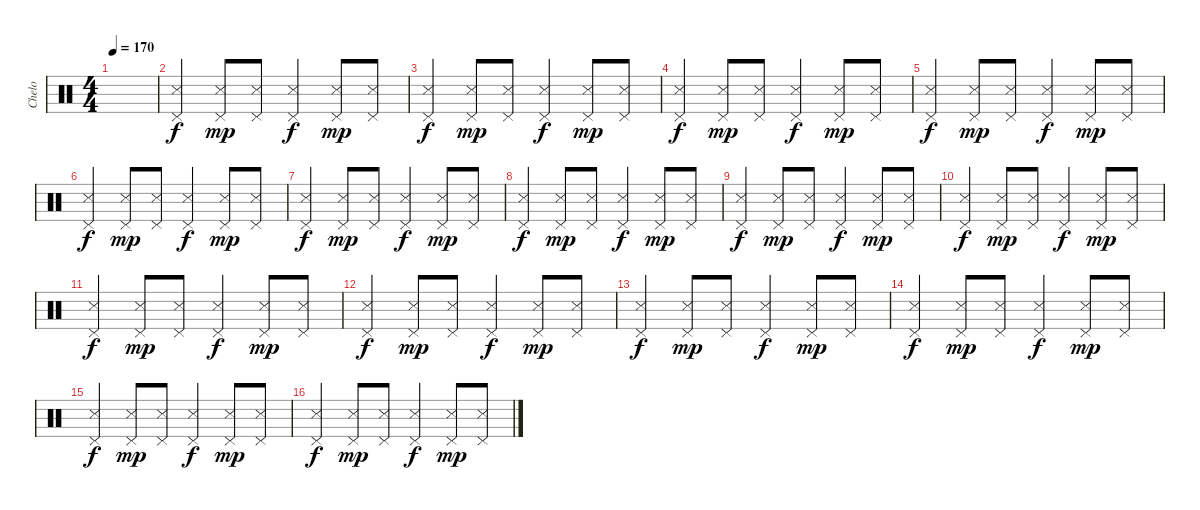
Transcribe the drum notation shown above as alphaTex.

\track ("Chelo" "Chelo") {instrument percussion}
\staff {score}
\articulation defaults
\ts (4 4)
\tempo 170
\clef neutral
\ks c
|
("Snare (side stick) 3" "Pedal Hi-Hat (hit)").4{dy f} ("Snare (side stick) 3" "Pedal Hi-Hat (hit)").8{dy mp} ("Pedal Hi-Hat (hit)" "Snare (side stick) 3").8 ("Snare (side stick) 3" "Pedal Hi-Hat (hit)").4{dy f} ("Snare (side stick) 3" "Pedal Hi-Hat (hit)").8{dy mp} ("Snare (side stick) 3" "Pedal Hi-Hat (hit)").8 |
("Snare (side stick) 3" "Pedal Hi-Hat (hit)").4{dy f} ("Snare (side stick) 3" "Pedal Hi-Hat (hit)").8{dy mp} ("Pedal Hi-Hat (hit)" "Snare (side stick) 3").8 ("Snare (side stick) 3" "Pedal Hi-Hat (hit)").4{dy f} ("Snare (side stick) 3" "Pedal Hi-Hat (hit)").8{dy mp} ("Snare (side stick) 3" "Pedal Hi-Hat (hit)").8 |
("Snare (side stick) 3" "Pedal Hi-Hat (hit)").4{dy f} ("Snare (side stick) 3" "Pedal Hi-Hat (hit)").8{dy mp} ("Pedal Hi-Hat (hit)" "Snare (side stick) 3").8 ("Snare (side stick) 3" "Pedal Hi-Hat (hit)").4{dy f} ("Snare (side stick) 3" "Pedal Hi-Hat (hit)").8{dy mp} ("Snare (side stick) 3" "Pedal Hi-Hat (hit)").8 |
("Snare (side stick) 3" "Pedal Hi-Hat (hit)").4{dy f} ("Snare (side stick) 3" "Pedal Hi-Hat (hit)").8{dy mp} ("Pedal Hi-Hat (hit)" "Snare (side stick) 3").8 ("Snare (side stick) 3" "Pedal Hi-Hat (hit)").4{dy f} ("Snare (side stick) 3" "Pedal Hi-Hat (hit)").8{dy mp} ("Snare (side stick) 3" "Pedal Hi-Hat (hit)").8 |
("Snare (side stick) 3" "Pedal Hi-Hat (hit)").4{dy f} ("Snare (side stick) 3" "Pedal Hi-Hat (hit)").8{dy mp} ("Pedal Hi-Hat (hit)" "Snare (side stick) 3").8 ("Snare (side stick) 3" "Pedal Hi-Hat (hit)").4{dy f} ("Snare (side stick) 3" "Pedal Hi-Hat (hit)").8{dy mp} ("Snare (side stick) 3" "Pedal Hi-Hat (hit)").8 |
("Snare (side stick) 3" "Pedal Hi-Hat (hit)").4{dy f} ("Snare (side stick) 3" "Pedal Hi-Hat (hit)").8{dy mp} ("Pedal Hi-Hat (hit)" "Snare (side stick) 3").8 ("Snare (side stick) 3" "Pedal Hi-Hat (hit)").4{dy f} ("Snare (side stick) 3" "Pedal Hi-Hat (hit)").8{dy mp} ("Snare (side stick) 3" "Pedal Hi-Hat (hit)").8 |
("Snare (side stick) 3" "Pedal Hi-Hat (hit)").4{dy f} ("Snare (side stick) 3" "Pedal Hi-Hat (hit)").8{dy mp} ("Pedal Hi-Hat (hit)" "Snare (side stick) 3").8 ("Snare (side stick) 3" "Pedal Hi-Hat (hit)").4{dy f} ("Snare (side stick) 3" "Pedal Hi-Hat (hit)").8{dy mp} ("Snare (side stick) 3" "Pedal Hi-Hat (hit)").8 |
("Snare (side stick) 3" "Pedal Hi-Hat (hit)").4{dy f} ("Snare (side stick) 3" "Pedal Hi-Hat (hit)").8{dy mp} ("Pedal Hi-Hat (hit)" "Snare (side stick) 3").8 ("Snare (side stick) 3" "Pedal Hi-Hat (hit)").4{dy f} ("Snare (side stick) 3" "Pedal Hi-Hat (hit)").8{dy mp} ("Snare (side stick) 3" "Pedal Hi-Hat (hit)").8 |
("Snare (side stick) 3" "Pedal Hi-Hat (hit)").4{dy f} ("Snare (side stick) 3" "Pedal Hi-Hat (hit)").8{dy mp} ("Pedal Hi-Hat (hit)" "Snare (side stick) 3").8 ("Snare (side stick) 3" "Pedal Hi-Hat (hit)").4{dy f} ("Snare (side stick) 3" "Pedal Hi-Hat (hit)").8{dy mp} ("Snare (side stick) 3" "Pedal Hi-Hat (hit)").8 |
("Snare (side stick) 3" "Pedal Hi-Hat (hit)").4{dy f} ("Snare (side stick) 3" "Pedal Hi-Hat (hit)").8{dy mp} ("Pedal Hi-Hat (hit)" "Snare (side stick) 3").8 ("Snare (side stick) 3" "Pedal Hi-Hat (hit)").4{dy f} ("Snare (side stick) 3" "Pedal Hi-Hat (hit)").8{dy mp} ("Snare (side stick) 3" "Pedal Hi-Hat (hit)").8 |
("Snare (side stick) 3" "Pedal Hi-Hat (hit)").4{dy f} ("Snare (side stick) 3" "Pedal Hi-Hat (hit)").8{dy mp} ("Pedal Hi-Hat (hit)" "Snare (side stick) 3").8 ("Snare (side stick) 3" "Pedal Hi-Hat (hit)").4{dy f} ("Snare (side stick) 3" "Pedal Hi-Hat (hit)").8{dy mp} ("Snare (side stick) 3" "Pedal Hi-Hat (hit)").8 |
("Snare (side stick) 3" "Pedal Hi-Hat (hit)").4{dy f} ("Snare (side stick) 3" "Pedal Hi-Hat (hit)").8{dy mp} ("Pedal Hi-Hat (hit)" "Snare (side stick) 3").8 ("Snare (side stick) 3" "Pedal Hi-Hat (hit)").4{dy f} ("Snare (side stick) 3" "Pedal Hi-Hat (hit)").8{dy mp} ("Snare (side stick) 3" "Pedal Hi-Hat (hit)").8 |
("Snare (side stick) 3" "Pedal Hi-Hat (hit)").4{dy f} ("Snare (side stick) 3" "Pedal Hi-Hat (hit)").8{dy mp} ("Pedal Hi-Hat (hit)" "Snare (side stick) 3").8 ("Snare (side stick) 3" "Pedal Hi-Hat (hit)").4{dy f} ("Snare (side stick) 3" "Pedal Hi-Hat (hit)").8{dy mp} ("Snare (side stick) 3" "Pedal Hi-Hat (hit)").8 |
("Snare (side stick) 3" "Pedal Hi-Hat (hit)").4{dy f} ("Snare (side stick) 3" "Pedal Hi-Hat (hit)").8{dy mp} ("Pedal Hi-Hat (hit)" "Snare (side stick) 3").8 ("Snare (side stick) 3" "Pedal Hi-Hat (hit)").4{dy f} ("Snare (side stick) 3" "Pedal Hi-Hat (hit)").8{dy mp} ("Snare (side stick) 3" "Pedal Hi-Hat (hit)").8 |
("Snare (side stick) 3" "Pedal Hi-Hat (hit)").4{dy f} ("Snare (side stick) 3" "Pedal Hi-Hat (hit)").8{dy mp} ("Pedal Hi-Hat (hit)" "Snare (side stick) 3").8 ("Snare (side stick) 3" "Pedal Hi-Hat (hit)").4{dy f} ("Snare (side stick) 3" "Pedal Hi-Hat (hit)").8{dy mp} ("Snare (side stick) 3" "Pedal Hi-Hat (hit)").8
